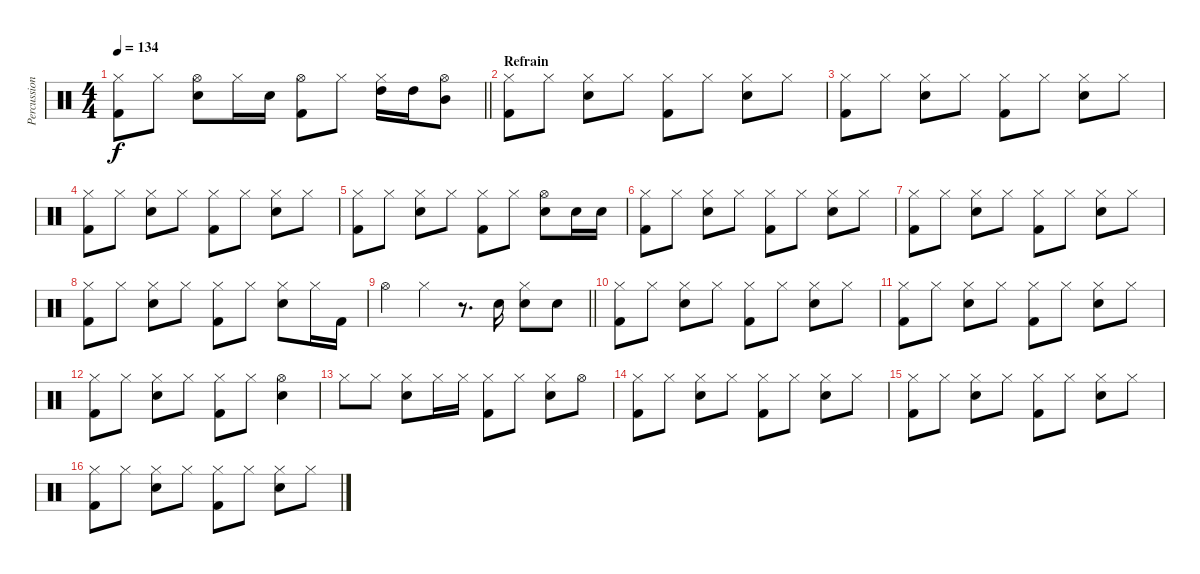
\track ("Percussion" "Percussion") {instrument percussion}
\staff {score}
\articulation defaults
\ts (4 4)
\tempo 134
\clef neutral
\barLineRight lightlight
\ks c
("Hi-Hat (closed)" "Kick (hit) 2").8{dy f} "Hi-Hat (closed)".8 ("Hi-Hat (open)" "Snare (hit) 2").8 "Hi-Hat (closed)".16 "Snare (hit) 2".16 ("Hi-Hat (open)" "Kick (hit) 2").8 "Hi-Hat (closed)".8 ("Hi-Hat (closed)" "High Tom (hit)").16 "High Tom (hit)".16 ("Hi-Hat (open)" "Mid Tom (hit)").8 |
\section ("" "Refrain")
("Hi-Hat (closed)" "Kick (hit) 2").8 "Hi-Hat (closed)".8 ("Hi-Hat (closed)" "Snare (hit) 2").8 "Hi-Hat (closed)".8 ("Hi-Hat (closed)" "Kick (hit) 2").8 "Hi-Hat (closed)".8 ("Hi-Hat (closed)" "Snare (hit) 2").8 "Hi-Hat (closed)".8 |
("Hi-Hat (closed)" "Kick (hit) 2").8 "Hi-Hat (closed)".8 ("Hi-Hat (closed)" "Snare (hit) 2").8 "Hi-Hat (closed)".8 ("Hi-Hat (closed)" "Kick (hit) 2").8 "Hi-Hat (closed)".8 ("Hi-Hat (closed)" "Snare (hit) 2").8 "Hi-Hat (closed)".8 |
("Hi-Hat (closed)" "Kick (hit) 2").8 "Hi-Hat (closed)".8 ("Hi-Hat (closed)" "Snare (hit) 2").8 "Hi-Hat (closed)".8 ("Hi-Hat (closed)" "Kick (hit) 2").8 "Hi-Hat (closed)".8 ("Hi-Hat (closed)" "Snare (hit) 2").8 "Hi-Hat (closed)".8 |
("Hi-Hat (closed)" "Kick (hit) 2").8 "Hi-Hat (closed)".8 ("Hi-Hat (closed)" "Snare (hit) 2").8 "Hi-Hat (closed)".8 ("Hi-Hat (closed)" "Kick (hit) 2").8 "Hi-Hat (closed)".8 ("Hi-Hat (open)" "Snare (hit) 2").8 "Snare (hit) 2".16 "Snare (hit) 2".16 |
("Hi-Hat (closed)" "Kick (hit) 2").8 "Hi-Hat (closed)".8 ("Hi-Hat (closed)" "Snare (hit) 2").8 "Hi-Hat (closed)".8 ("Hi-Hat (closed)" "Kick (hit) 2").8 "Hi-Hat (closed)".8 ("Hi-Hat (closed)" "Snare (hit) 2").8 "Hi-Hat (closed)".8 |
("Hi-Hat (closed)" "Kick (hit) 2").8 "Hi-Hat (closed)".8 ("Hi-Hat (closed)" "Snare (hit) 2").8 "Hi-Hat (closed)".8 ("Hi-Hat (closed)" "Kick (hit) 2").8 "Hi-Hat (closed)".8 ("Hi-Hat (closed)" "Snare (hit) 2").8 "Hi-Hat (closed)".8 |
("Hi-Hat (closed)" "Kick (hit) 2").8 "Hi-Hat (closed)".8 ("Hi-Hat (closed)" "Snare (hit) 2").8 "Hi-Hat (closed)".8 ("Hi-Hat (closed)" "Kick (hit) 2").8 "Hi-Hat (closed)".8 ("Hi-Hat (closed)" "Snare (hit) 2").8 "Hi-Hat (closed)".16 "Kick (hit) 2".16 |
\barLineRight lightlight "Hi-Hat (open)".4 "Hi-Hat (closed)".4
r.8{d} "Snare (hit) 2".16 ("Hi-Hat (closed)" "Snare (hit) 2").8 "Snare (hit) 2".8 |
("Hi-Hat (closed)" "Kick (hit) 2").8 "Hi-Hat (closed)".8 ("Hi-Hat (closed)" "Snare (hit) 2").8 "Hi-Hat (closed)".8 ("Hi-Hat (closed)" "Kick (hit) 2").8 "Hi-Hat (closed)".8 ("Hi-Hat (closed)" "Snare (hit) 2").8 "Hi-Hat (closed)".8 |
("Hi-Hat (closed)" "Kick (hit) 2").8 "Hi-Hat (closed)".8 ("Hi-Hat (closed)" "Snare (hit) 2").8 "Hi-Hat (closed)".8 ("Hi-Hat (closed)" "Kick (hit) 2").8 "Hi-Hat (closed)".8 ("Hi-Hat (closed)" "Snare (hit) 2").8 "Hi-Hat (closed)".8 |
("Hi-Hat (closed)" "Kick (hit) 2").8 "Hi-Hat (closed)".8 ("Hi-Hat (closed)" "Snare (hit) 2").8 "Hi-Hat (closed)".8 ("Hi-Hat (closed)" "Kick (hit) 2").8 "Hi-Hat (closed)".8 ("Hi-Hat (open)" "Snare (hit) 2").4 |
"Hi-Hat (closed)".8 "Hi-Hat (closed)".8 ("Hi-Hat (closed)" "Snare (hit) 2").8 "Hi-Hat (closed)".16 "Hi-Hat (closed)".16 ("Hi-Hat (closed)" "Kick (hit) 2").8 "Hi-Hat (closed)".8 ("Hi-Hat (closed)" "Snare (hit) 2").8 "Hi-Hat (open)".8 |
("Hi-Hat (closed)" "Kick (hit) 2").8 "Hi-Hat (closed)".8 ("Hi-Hat (closed)" "Snare (hit) 2").8 "Hi-Hat (closed)".8 ("Hi-Hat (closed)" "Kick (hit) 2").8 "Hi-Hat (closed)".8 ("Hi-Hat (closed)" "Snare (hit) 2").8 "Hi-Hat (closed)".8 |
("Hi-Hat (closed)" "Kick (hit) 2").8 "Hi-Hat (closed)".8 ("Hi-Hat (closed)" "Snare (hit) 2").8 "Hi-Hat (closed)".8 ("Hi-Hat (closed)" "Kick (hit) 2").8 "Hi-Hat (closed)".8 ("Hi-Hat (closed)" "Snare (hit) 2").8 "Hi-Hat (closed)".8 |
("Hi-Hat (closed)" "Kick (hit) 2").8 "Hi-Hat (closed)".8 ("Hi-Hat (closed)" "Snare (hit) 2").8 "Hi-Hat (closed)".8 ("Hi-Hat (closed)" "Kick (hit) 2").8 "Hi-Hat (closed)".8 ("Hi-Hat (closed)" "Snare (hit) 2").8 "Hi-Hat (closed)".8
